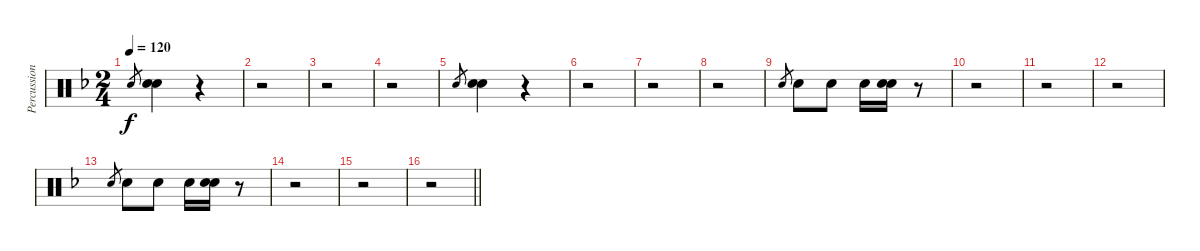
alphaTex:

\track ("Percussion" "Percussion") {instrument percussion}
\staff {score}
\articulation defaults
\ts (2 4)
\tempo 120
\clef neutral
\ks dminor "Snare (hit) 2".8{gr dy f}
("Snare (hit) 2" "Electric Snare (hit)").4 r.4 |
r.2 |
r.2 |
r.2 |
"Snare (hit) 2".8{gr} ("Snare (hit) 2" "Electric Snare (hit)").4 r.4 |
r.2 |
r.2 |
r.2 |
"Snare (hit) 2".8{gr} "Snare (hit) 2".8 "Snare (hit) 2".8 "Snare (hit) 2".16 ("Snare (hit) 2" "Electric Snare (hit)").16 r.8 |
r.2 |
r.2 |
r.2 |
"Snare (hit) 2".8{gr} "Snare (hit) 2".8 "Snare (hit) 2".8 "Snare (hit) 2".16 ("Snare (hit) 2" "Electric Snare (hit)").16 r.8 |
r.2 |
r.2 |
\barLineRight lightlight
r.2
